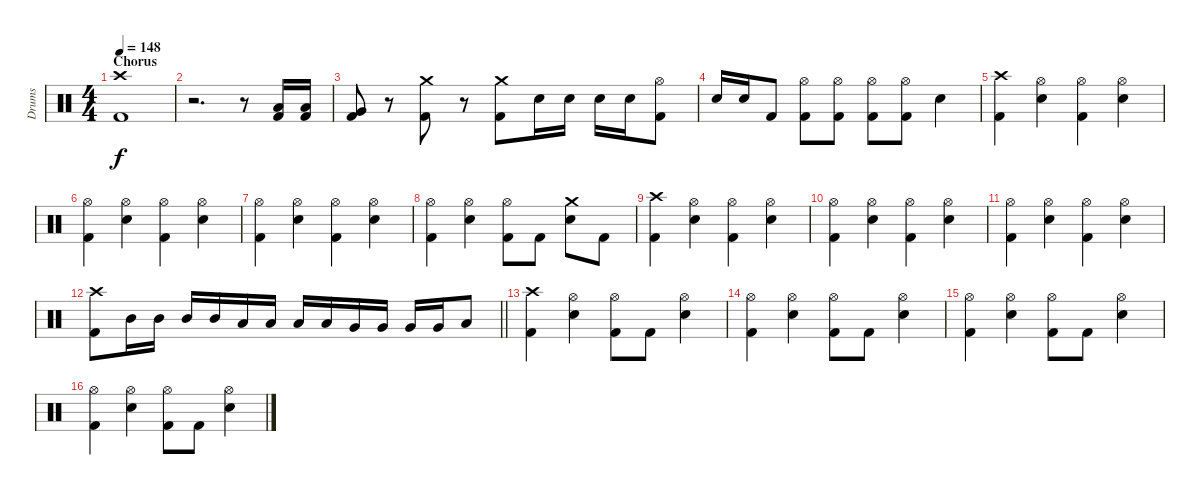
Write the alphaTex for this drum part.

\track ("Drums" "Drums") {instrument percussion}
\staff {score}
\articulation defaults
\ts (4 4)
\section ("" "Chorus")
\tempo 148
\clef neutral
\ks c
("Crash high (hit)" "Kick (hit) 2").1{dy f} |
r.2{d} r.8 ("Low Tom (hit)" "Kick (hit) 2").16 ("Low Tom (hit)" "Kick (hit) 2").16 |
("Very Low Tom (hit)" "Kick (hit) 2").8 r.8 ("Crash medium (hit)" "Kick (hit) 2").8 r.8 ("Crash medium (hit)" "Kick (hit) 2").8 "Snare (hit) 2".16 "Snare (hit) 2".16 "Snare (hit) 2".16 "Snare (hit) 2".16 ("Hi-Hat (open)" "Kick (hit) 2").8 |
"Snare (hit) 2".16 "Snare (hit) 2".16 "Kick (hit) 2".8 ("Hi-Hat (open)" "Kick (hit) 2").8 ("Hi-Hat (open)" "Kick (hit) 2").8 ("Hi-Hat (open)" "Kick (hit) 2").8 ("Hi-Hat (open)" "Kick (hit) 2").8 "Snare (hit) 2".4 |
("Crash high (hit)" "Kick (hit) 2").4 ("Hi-Hat (open)" "Snare (hit) 2").4 ("Hi-Hat (open)" "Kick (hit) 2").4 ("Hi-Hat (open)" "Snare (hit) 2").4 |
("Hi-Hat (open)" "Kick (hit) 2").4 ("Hi-Hat (open)" "Snare (hit) 2").4 ("Hi-Hat (open)" "Kick (hit) 2").4 ("Hi-Hat (open)" "Snare (hit) 2").4 |
("Hi-Hat (open)" "Kick (hit) 2").4 ("Hi-Hat (open)" "Snare (hit) 2").4 ("Hi-Hat (open)" "Kick (hit) 2").4 ("Hi-Hat (open)" "Snare (hit) 2").4 |
("Hi-Hat (open)" "Kick (hit) 2").4 ("Hi-Hat (open)" "Snare (hit) 2").4 ("Hi-Hat (open)" "Kick (hit) 2").8 "Kick (hit) 2".8 ("Crash medium (hit)" "Snare (hit) 2").8 "Kick (hit) 2".8 |
("Crash high (hit)" "Kick (hit) 2").4 ("Hi-Hat (open)" "Snare (hit) 2").4 ("Hi-Hat (open)" "Kick (hit) 2").4 ("Hi-Hat (open)" "Snare (hit) 2").4 |
("Hi-Hat (open)" "Kick (hit) 2").4 ("Hi-Hat (open)" "Snare (hit) 2").4 ("Hi-Hat (open)" "Kick (hit) 2").4 ("Hi-Hat (open)" "Snare (hit) 2").4 |
("Hi-Hat (open)" "Kick (hit) 2").4 ("Hi-Hat (open)" "Snare (hit) 2").4 ("Hi-Hat (open)" "Kick (hit) 2").4 ("Hi-Hat (open)" "Snare (hit) 2").4 |
\barLineRight lightlight
("Crash high (hit)" "Kick (hit) 2").8 "Mid Tom (hit)".16 "Mid Tom (hit)".16 "Mid Tom (hit)".16 "Mid Tom (hit)".16 "Low Tom (hit)".16 "Low Tom (hit)".16 "Low Tom (hit)".16 "Low Tom (hit)".16 "Very Low Tom (hit)".16 "Very Low Tom (hit)".16 "Very Low Tom (hit)".16 "Very Low Tom (hit)".16 "Low Floor Tom (hit)".8 |
("Crash high (hit)" "Kick (hit) 2").4 ("Hi-Hat (open)" "Snare (hit) 2").4 ("Hi-Hat (open)" "Kick (hit) 2").8 "Kick (hit) 2".8 ("Hi-Hat (open)" "Snare (hit) 2").4 |
("Hi-Hat (open)" "Kick (hit) 2").4 ("Hi-Hat (open)" "Snare (hit) 2").4 ("Hi-Hat (open)" "Kick (hit) 2").8 "Kick (hit) 2".8 ("Hi-Hat (open)" "Snare (hit) 2").4 |
("Hi-Hat (open)" "Kick (hit) 2").4 ("Hi-Hat (open)" "Snare (hit) 2").4 ("Hi-Hat (open)" "Kick (hit) 2").8 "Kick (hit) 2".8 ("Hi-Hat (open)" "Snare (hit) 2").4 |
("Hi-Hat (open)" "Kick (hit) 2").4 ("Hi-Hat (open)" "Snare (hit) 2").4 ("Hi-Hat (open)" "Kick (hit) 2").8 "Kick (hit) 2".8 ("Hi-Hat (open)" "Snare (hit) 2").4
